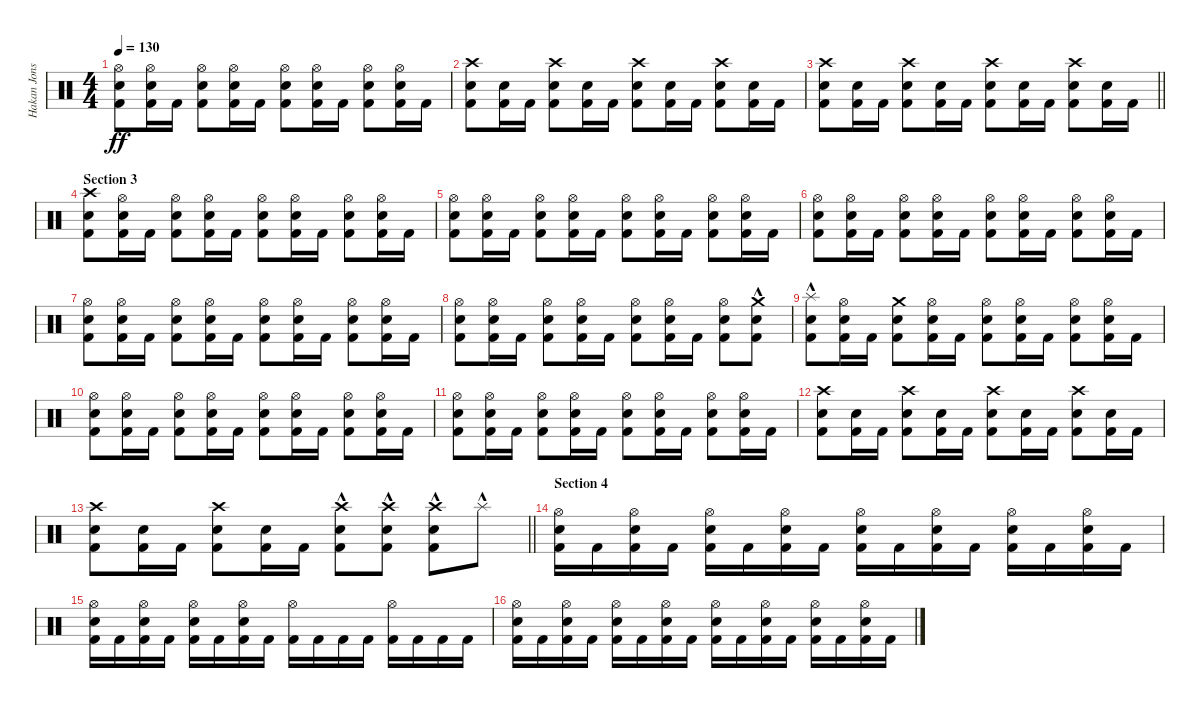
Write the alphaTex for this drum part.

\track ("Hakan Jonsson" "Hakan Jons") {instrument percussion}
\staff {score}
\articulation defaults
\ts (4 4)
\tempo 130
\clef neutral
\ks c
("Hi-Hat (open)" "Electric Snare (hit)" "Kick (hit) 2").8{dy ff} ("Hi-Hat (open)" "Electric Snare (hit)" "Kick (hit) 2").16 "Kick (hit) 2".16 ("Hi-Hat (open)" "Electric Snare (hit)" "Kick (hit) 2").8 ("Hi-Hat (open)" "Electric Snare (hit)" "Kick (hit) 2").16 "Kick (hit) 2".16 ("Hi-Hat (open)" "Electric Snare (hit)" "Kick (hit) 2").8 ("Hi-Hat (open)" "Electric Snare (hit)" "Kick (hit) 2").16 "Kick (hit) 2".16 ("Hi-Hat (open)" "Electric Snare (hit)" "Kick (hit) 2").8 ("Hi-Hat (open)" "Electric Snare (hit)" "Kick (hit) 2").16 "Kick (hit) 2".16 |
("Crash high (hit)" "Electric Snare (hit)" "Kick (hit) 2").8 ("Electric Snare (hit)" "Kick (hit) 2").16 "Kick (hit) 2".16 ("Crash high (hit)" "Electric Snare (hit)" "Kick (hit) 2").8 ("Electric Snare (hit)" "Kick (hit) 2").16 "Kick (hit) 2".16 ("Crash high (hit)" "Electric Snare (hit)" "Kick (hit) 2").8 ("Electric Snare (hit)" "Kick (hit) 2").16 "Kick (hit) 2".16 ("Crash high (hit)" "Electric Snare (hit)" "Kick (hit) 2").8 ("Electric Snare (hit)" "Kick (hit) 2").16 "Kick (hit) 2".16 |
\barLineRight lightlight
("Crash high (hit)" "Electric Snare (hit)" "Kick (hit) 2").8 ("Electric Snare (hit)" "Kick (hit) 2").16 "Kick (hit) 2".16 ("Crash high (hit)" "Electric Snare (hit)" "Kick (hit) 2").8 ("Electric Snare (hit)" "Kick (hit) 2").16 "Kick (hit) 2".16 ("Crash high (hit)" "Electric Snare (hit)" "Kick (hit) 2").8 ("Electric Snare (hit)" "Kick (hit) 2").16 "Kick (hit) 2".16 ("Crash high (hit)" "Electric Snare (hit)" "Kick (hit) 2").8 ("Electric Snare (hit)" "Kick (hit) 2").16 "Kick (hit) 2".16 |
\section ("" "Section 3")
("Crash high (hit)" "Electric Snare (hit)" "Kick (hit) 2").8 ("Hi-Hat (open)" "Electric Snare (hit)" "Kick (hit) 2").16 "Kick (hit) 2".16 ("Hi-Hat (open)" "Electric Snare (hit)" "Kick (hit) 2").8 ("Hi-Hat (open)" "Electric Snare (hit)" "Kick (hit) 2").16 "Kick (hit) 2".16 ("Hi-Hat (open)" "Electric Snare (hit)" "Kick (hit) 2").8 ("Hi-Hat (open)" "Electric Snare (hit)" "Kick (hit) 2").16 "Kick (hit) 2".16 ("Hi-Hat (open)" "Electric Snare (hit)" "Kick (hit) 2").8 ("Hi-Hat (open)" "Electric Snare (hit)" "Kick (hit) 2").16 "Kick (hit) 2".16 |
("Hi-Hat (open)" "Electric Snare (hit)" "Kick (hit) 2").8 ("Hi-Hat (open)" "Electric Snare (hit)" "Kick (hit) 2").16 "Kick (hit) 2".16 ("Hi-Hat (open)" "Electric Snare (hit)" "Kick (hit) 2").8 ("Hi-Hat (open)" "Electric Snare (hit)" "Kick (hit) 2").16 "Kick (hit) 2".16 ("Hi-Hat (open)" "Electric Snare (hit)" "Kick (hit) 2").8 ("Hi-Hat (open)" "Electric Snare (hit)" "Kick (hit) 2").16 "Kick (hit) 2".16 ("Hi-Hat (open)" "Electric Snare (hit)" "Kick (hit) 2").8 ("Hi-Hat (open)" "Electric Snare (hit)" "Kick (hit) 2").16 "Kick (hit) 2".16 |
("Hi-Hat (open)" "Electric Snare (hit)" "Kick (hit) 2").8 ("Hi-Hat (open)" "Electric Snare (hit)" "Kick (hit) 2").16 "Kick (hit) 2".16 ("Hi-Hat (open)" "Electric Snare (hit)" "Kick (hit) 2").8 ("Hi-Hat (open)" "Electric Snare (hit)" "Kick (hit) 2").16 "Kick (hit) 2".16 ("Hi-Hat (open)" "Electric Snare (hit)" "Kick (hit) 2").8 ("Hi-Hat (open)" "Electric Snare (hit)" "Kick (hit) 2").16 "Kick (hit) 2".16 ("Hi-Hat (open)" "Electric Snare (hit)" "Kick (hit) 2").8 ("Hi-Hat (open)" "Electric Snare (hit)" "Kick (hit) 2").16 "Kick (hit) 2".16 |
("Hi-Hat (open)" "Electric Snare (hit)" "Kick (hit) 2").8 ("Hi-Hat (open)" "Electric Snare (hit)" "Kick (hit) 2").16 "Kick (hit) 2".16 ("Hi-Hat (open)" "Electric Snare (hit)" "Kick (hit) 2").8 ("Hi-Hat (open)" "Electric Snare (hit)" "Kick (hit) 2").16 "Kick (hit) 2".16 ("Hi-Hat (open)" "Electric Snare (hit)" "Kick (hit) 2").8 ("Hi-Hat (open)" "Electric Snare (hit)" "Kick (hit) 2").16 "Kick (hit) 2".16 ("Hi-Hat (open)" "Electric Snare (hit)" "Kick (hit) 2").8 ("Hi-Hat (open)" "Electric Snare (hit)" "Kick (hit) 2").16 "Kick (hit) 2".16 |
("Hi-Hat (open)" "Electric Snare (hit)" "Kick (hit) 2").8 ("Hi-Hat (open)" "Electric Snare (hit)" "Kick (hit) 2").16 "Kick (hit) 2".16 ("Hi-Hat (open)" "Electric Snare (hit)" "Kick (hit) 2").8 ("Hi-Hat (open)" "Electric Snare (hit)" "Kick (hit) 2").16 "Kick (hit) 2".16 ("Hi-Hat (open)" "Electric Snare (hit)" "Kick (hit) 2").8 ("Hi-Hat (open)" "Electric Snare (hit)" "Kick (hit) 2").16 "Kick (hit) 2".16 ("Hi-Hat (open)" "Electric Snare (hit)" "Kick (hit) 2").8 ("Crash medium (hit)"{hac} "Electric Snare (hit)"{hac} "Kick (hit) 2"{hac}).8 |
("Splash (hit)"{hac} "Electric Snare (hit)"{hac} "Kick (hit) 2"{hac}).8 ("Hi-Hat (open)" "Electric Snare (hit)" "Kick (hit) 2").16 "Kick (hit) 2".16 ("Crash medium (hit)" "Electric Snare (hit)" "Kick (hit) 2").8 ("Hi-Hat (open)" "Electric Snare (hit)" "Kick (hit) 2").16 "Kick (hit) 2".16 ("Hi-Hat (open)" "Electric Snare (hit)" "Kick (hit) 2").8 ("Hi-Hat (open)" "Electric Snare (hit)" "Kick (hit) 2").16 "Kick (hit) 2".16 ("Hi-Hat (open)" "Electric Snare (hit)" "Kick (hit) 2").8 ("Hi-Hat (open)" "Electric Snare (hit)" "Kick (hit) 2").16 "Kick (hit) 2".16 |
("Hi-Hat (open)" "Electric Snare (hit)" "Kick (hit) 2").8 ("Hi-Hat (open)" "Electric Snare (hit)" "Kick (hit) 2").16 "Kick (hit) 2".16 ("Hi-Hat (open)" "Electric Snare (hit)" "Kick (hit) 2").8 ("Hi-Hat (open)" "Electric Snare (hit)" "Kick (hit) 2").16 "Kick (hit) 2".16 ("Hi-Hat (open)" "Electric Snare (hit)" "Kick (hit) 2").8 ("Hi-Hat (open)" "Electric Snare (hit)" "Kick (hit) 2").16 "Kick (hit) 2".16 ("Hi-Hat (open)" "Electric Snare (hit)" "Kick (hit) 2").8 ("Hi-Hat (open)" "Electric Snare (hit)" "Kick (hit) 2").16 "Kick (hit) 2".16 |
("Hi-Hat (open)" "Electric Snare (hit)" "Kick (hit) 2").8 ("Hi-Hat (open)" "Electric Snare (hit)" "Kick (hit) 2").16 "Kick (hit) 2".16 ("Hi-Hat (open)" "Electric Snare (hit)" "Kick (hit) 2").8 ("Hi-Hat (open)" "Electric Snare (hit)" "Kick (hit) 2").16 "Kick (hit) 2".16 ("Hi-Hat (open)" "Electric Snare (hit)" "Kick (hit) 2").8 ("Hi-Hat (open)" "Electric Snare (hit)" "Kick (hit) 2").16 "Kick (hit) 2".16 ("Hi-Hat (open)" "Electric Snare (hit)" "Kick (hit) 2").8 ("Hi-Hat (open)" "Electric Snare (hit)" "Kick (hit) 2").16 "Kick (hit) 2".16 |
("Crash high (hit)" "Electric Snare (hit)" "Kick (hit) 2").8 ("Electric Snare (hit)" "Kick (hit) 2").16 "Kick (hit) 2".16 ("Crash high (hit)" "Electric Snare (hit)" "Kick (hit) 2").8 ("Electric Snare (hit)" "Kick (hit) 2").16 "Kick (hit) 2".16 ("Crash high (hit)" "Electric Snare (hit)" "Kick (hit) 2").8 ("Electric Snare (hit)" "Kick (hit) 2").16 "Kick (hit) 2".16 ("Crash high (hit)" "Electric Snare (hit)" "Kick (hit) 2").8 ("Electric Snare (hit)" "Kick (hit) 2").16 "Kick (hit) 2".16 |
\barLineRight lightlight
("Crash high (hit)" "Electric Snare (hit)" "Kick (hit) 2").8 ("Electric Snare (hit)" "Kick (hit) 2").16 "Kick (hit) 2".16 ("Crash high (hit)" "Electric Snare (hit)" "Kick (hit) 2").8 ("Electric Snare (hit)" "Kick (hit) 2").16 "Kick (hit) 2".16 ("Crash high (hit)"{hac} "Electric Snare (hit)"{hac} "Kick (hit) 2"{hac}).8 ("Crash high (hit)"{hac} "Electric Snare (hit)"{hac} "Kick (hit) 2"{hac}).8 ("Crash high (hit)"{hac} "Electric Snare (hit)"{hac} "Kick (hit) 2"{hac}).8 "Splash (hit)"{hac}.8 |
\section ("" "Section 4")
("Hi-Hat (open)" "Electric Snare (hit)" "Kick (hit) 2").16 "Kick (hit) 2".16 ("Hi-Hat (open)" "Electric Snare (hit)" "Kick (hit) 2").16 "Kick (hit) 2".16 ("Hi-Hat (open)" "Electric Snare (hit)" "Kick (hit) 2").16 "Kick (hit) 2".16 ("Hi-Hat (open)" "Electric Snare (hit)" "Kick (hit) 2").16 "Kick (hit) 2".16 ("Hi-Hat (open)" "Electric Snare (hit)" "Kick (hit) 2").16 "Kick (hit) 2".16 ("Hi-Hat (open)" "Electric Snare (hit)" "Kick (hit) 2").16 "Kick (hit) 2".16 ("Hi-Hat (open)" "Electric Snare (hit)" "Kick (hit) 2").16 "Kick (hit) 2".16 ("Hi-Hat (open)" "Electric Snare (hit)" "Kick (hit) 2").16 "Kick (hit) 2".16 |
("Hi-Hat (open)" "Electric Snare (hit)" "Kick (hit) 2").16 "Kick (hit) 2".16 ("Hi-Hat (open)" "Electric Snare (hit)" "Kick (hit) 2").16 "Kick (hit) 2".16 ("Hi-Hat (open)" "Electric Snare (hit)" "Kick (hit) 2").16 "Kick (hit) 2".16 ("Hi-Hat (open)" "Electric Snare (hit)" "Kick (hit) 2").16 "Kick (hit) 2".16 ("Hi-Hat (open)" "Kick (hit) 2").16 "Kick (hit) 2".16 "Kick (hit) 2".16 "Kick (hit) 2".16 ("Hi-Hat (open)" "Kick (hit) 2").16 "Kick (hit) 2".16 "Kick (hit) 2".16 "Kick (hit) 2".16 |
("Hi-Hat (open)" "Electric Snare (hit)" "Kick (hit) 2").16 "Kick (hit) 2".16 ("Hi-Hat (open)" "Electric Snare (hit)" "Kick (hit) 2").16 "Kick (hit) 2".16 ("Hi-Hat (open)" "Electric Snare (hit)" "Kick (hit) 2").16 "Kick (hit) 2".16 ("Hi-Hat (open)" "Electric Snare (hit)" "Kick (hit) 2").16 "Kick (hit) 2".16 ("Hi-Hat (open)" "Electric Snare (hit)" "Kick (hit) 2").16 "Kick (hit) 2".16 ("Hi-Hat (open)" "Electric Snare (hit)" "Kick (hit) 2").16 "Kick (hit) 2".16 ("Hi-Hat (open)" "Electric Snare (hit)" "Kick (hit) 2").16 "Kick (hit) 2".16 ("Hi-Hat (open)" "Electric Snare (hit)" "Kick (hit) 2").16 "Kick (hit) 2".16
